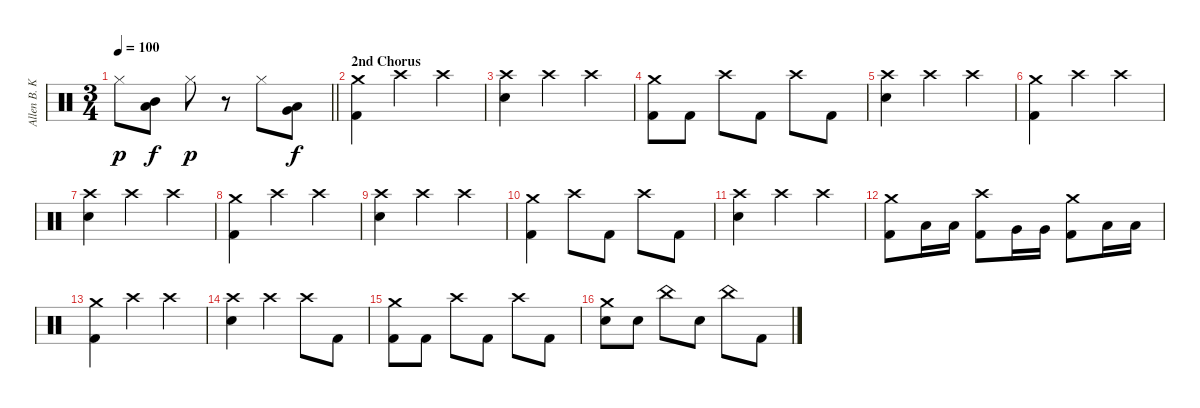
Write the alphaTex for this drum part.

\track ("Allen B. Konstanz (Drums)" "Allen B. K") {instrument percussion}
\staff {score}
\articulation defaults
\ts (3 4)
\tempo 100
\clef neutral
\barLineRight lightlight
\ks c "Hi-Hat (closed)".8{dy p}
("Mid Tom (hit)" "Low Tom (hit)").8{dy f} "Hi-Hat (closed)".8{dy p} r.8 "Hi-Hat (closed)".8 ("Low Tom (hit)" "Very Low Tom (hit)").8{dy f} |
\section ("" "2nd Chorus")
("Crash medium (hit)" "Kick (hit) 2").4 "Crash high (hit)".4 "Crash high (hit)".4 |
("Crash high (hit)" "Snare (hit) 2").4 "Crash high (hit)".4 "Crash high (hit)".4 |
("Crash medium (hit)" "Kick (hit) 2").8 "Kick (hit) 2".8 "Crash high (hit)".8 "Kick (hit) 2".8 "Crash high (hit)".8 "Kick (hit) 2".8 |
("Crash high (hit)" "Snare (hit) 2").4 "Crash high (hit)".4 "Crash high (hit)".4 |
("Crash medium (hit)" "Kick (hit) 2").4 "Crash high (hit)".4 "Crash high (hit)".4 |
("Crash high (hit)" "Snare (hit) 2").4 "Crash high (hit)".4 "Crash high (hit)".4 |
("Crash medium (hit)" "Kick (hit) 2").4 "Crash high (hit)".4 "Crash high (hit)".4 |
("Crash high (hit)" "Snare (hit) 2").4 "Crash high (hit)".4 "Crash high (hit)".4 |
("Crash medium (hit)" "Kick (hit) 2").4 "Crash high (hit)".8 "Kick (hit) 2".8 "Crash high (hit)".8 "Kick (hit) 2".8 |
("Crash high (hit)" "Snare (hit) 2").4 "Crash high (hit)".4 "Crash high (hit)".4 |
("Crash medium (hit)" "Kick (hit) 2").8 "Low Tom (hit)".16 "Low Tom (hit)".16 ("Crash high (hit)" "Kick (hit) 2").8 "Very Low Tom (hit)".16 "Very Low Tom (hit)".16 ("Crash medium (hit)" "Kick (hit) 2").8 "Low Floor Tom (hit)".16 "Low Floor Tom (hit)".16 |
("Crash medium (hit)" "Kick (hit) 2").4 "Crash high (hit)".4 "Crash high (hit)".4 |
("Crash high (hit)" "Snare (hit) 2").4 "Crash high (hit)".4 "Crash high (hit)".8 "Kick (hit) 2".8 |
("Crash medium (hit)" "Kick (hit) 2").8 "Kick (hit) 2".8 "Crash high (hit)".8 "Kick (hit) 2".8 "Crash high (hit)".8 "Kick (hit) 2".8 |
("Crash medium (hit)" "Snare (hit) 2").8 "Snare (hit) 2".8 "China (hit)".8 "Snare (hit) 2".8 "China (hit)".8 "Kick (hit) 2".8
